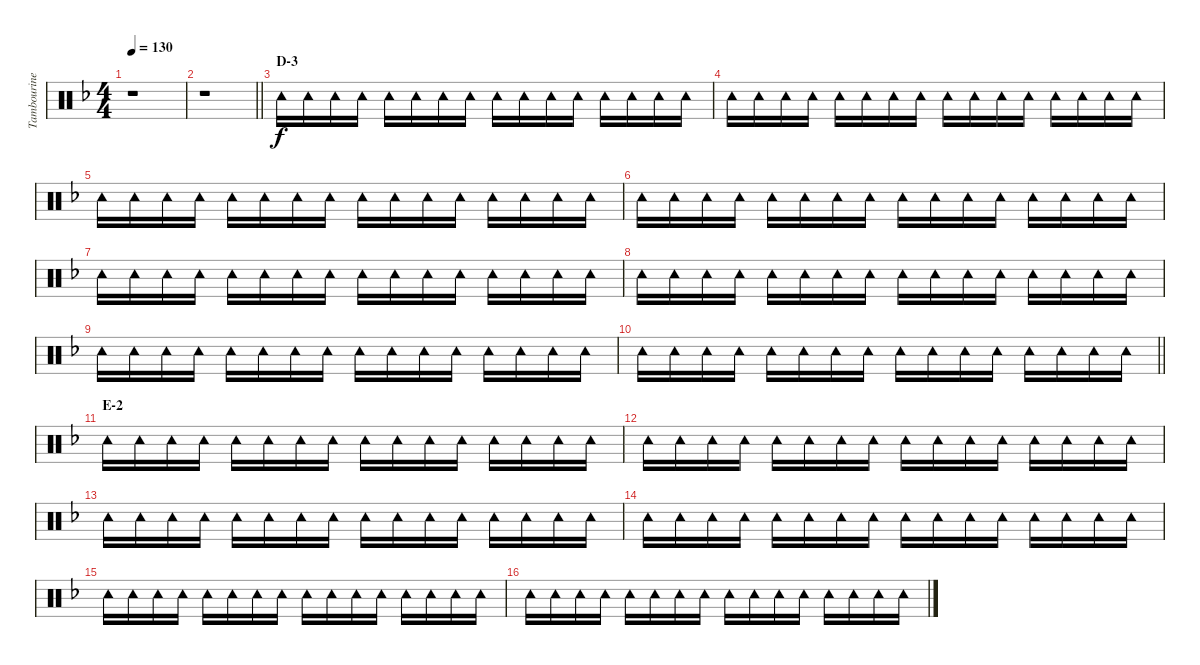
\track ("Tambourine" "Tambourine") {instrument percussion}
\staff {score}
\articulation defaults
\ts (4 4)
\tempo 130
\clef neutral
\ks f
r.1{dy f} |
\barLineRight lightlight
r.1 |
\section ("" "D-3")
"Tambourine (hit)".16 "Tambourine (hit)".16 "Tambourine (hit)".16 "Tambourine (hit)".16 "Tambourine (hit)".16 "Tambourine (hit)".16 "Tambourine (hit)".16 "Tambourine (hit)".16 "Tambourine (hit)".16 "Tambourine (hit)".16 "Tambourine (hit)".16 "Tambourine (hit)".16 "Tambourine (hit)".16 "Tambourine (hit)".16 "Tambourine (hit)".16 "Tambourine (hit)".16 |
"Tambourine (hit)".16 "Tambourine (hit)".16 "Tambourine (hit)".16 "Tambourine (hit)".16 "Tambourine (hit)".16 "Tambourine (hit)".16 "Tambourine (hit)".16 "Tambourine (hit)".16 "Tambourine (hit)".16 "Tambourine (hit)".16 "Tambourine (hit)".16 "Tambourine (hit)".16 "Tambourine (hit)".16 "Tambourine (hit)".16 "Tambourine (hit)".16 "Tambourine (hit)".16 |
"Tambourine (hit)".16 "Tambourine (hit)".16 "Tambourine (hit)".16 "Tambourine (hit)".16 "Tambourine (hit)".16 "Tambourine (hit)".16 "Tambourine (hit)".16 "Tambourine (hit)".16 "Tambourine (hit)".16 "Tambourine (hit)".16 "Tambourine (hit)".16 "Tambourine (hit)".16 "Tambourine (hit)".16 "Tambourine (hit)".16 "Tambourine (hit)".16 "Tambourine (hit)".16 |
"Tambourine (hit)".16 "Tambourine (hit)".16 "Tambourine (hit)".16 "Tambourine (hit)".16 "Tambourine (hit)".16 "Tambourine (hit)".16 "Tambourine (hit)".16 "Tambourine (hit)".16 "Tambourine (hit)".16 "Tambourine (hit)".16 "Tambourine (hit)".16 "Tambourine (hit)".16 "Tambourine (hit)".16 "Tambourine (hit)".16 "Tambourine (hit)".16 "Tambourine (hit)".16 |
"Tambourine (hit)".16 "Tambourine (hit)".16 "Tambourine (hit)".16 "Tambourine (hit)".16 "Tambourine (hit)".16 "Tambourine (hit)".16 "Tambourine (hit)".16 "Tambourine (hit)".16 "Tambourine (hit)".16 "Tambourine (hit)".16 "Tambourine (hit)".16 "Tambourine (hit)".16 "Tambourine (hit)".16 "Tambourine (hit)".16 "Tambourine (hit)".16 "Tambourine (hit)".16 |
"Tambourine (hit)".16 "Tambourine (hit)".16 "Tambourine (hit)".16 "Tambourine (hit)".16 "Tambourine (hit)".16 "Tambourine (hit)".16 "Tambourine (hit)".16 "Tambourine (hit)".16 "Tambourine (hit)".16 "Tambourine (hit)".16 "Tambourine (hit)".16 "Tambourine (hit)".16 "Tambourine (hit)".16 "Tambourine (hit)".16 "Tambourine (hit)".16 "Tambourine (hit)".16 |
"Tambourine (hit)".16 "Tambourine (hit)".16 "Tambourine (hit)".16 "Tambourine (hit)".16 "Tambourine (hit)".16 "Tambourine (hit)".16 "Tambourine (hit)".16 "Tambourine (hit)".16 "Tambourine (hit)".16 "Tambourine (hit)".16 "Tambourine (hit)".16 "Tambourine (hit)".16 "Tambourine (hit)".16 "Tambourine (hit)".16 "Tambourine (hit)".16 "Tambourine (hit)".16 |
\barLineRight lightlight "Tambourine (hit)".16 "Tambourine (hit)".16 "Tambourine (hit)".16 "Tambourine (hit)".16 "Tambourine (hit)".16 "Tambourine (hit)".16 "Tambourine (hit)".16 "Tambourine (hit)".16 "Tambourine (hit)".16 "Tambourine (hit)".16 "Tambourine (hit)".16 "Tambourine (hit)".16 "Tambourine (hit)".16 "Tambourine (hit)".16 "Tambourine (hit)".16 "Tambourine (hit)".16
|
\section ("" "E-2")
"Tambourine (hit)".16 "Tambourine (hit)".16 "Tambourine (hit)".16 "Tambourine (hit)".16 "Tambourine (hit)".16 "Tambourine (hit)".16 "Tambourine (hit)".16 "Tambourine (hit)".16 "Tambourine (hit)".16 "Tambourine (hit)".16 "Tambourine (hit)".16 "Tambourine (hit)".16 "Tambourine (hit)".16 "Tambourine (hit)".16 "Tambourine (hit)".16 "Tambourine (hit)".16 |
"Tambourine (hit)".16 "Tambourine (hit)".16 "Tambourine (hit)".16 "Tambourine (hit)".16 "Tambourine (hit)".16 "Tambourine (hit)".16 "Tambourine (hit)".16 "Tambourine (hit)".16 "Tambourine (hit)".16 "Tambourine (hit)".16 "Tambourine (hit)".16 "Tambourine (hit)".16 "Tambourine (hit)".16 "Tambourine (hit)".16 "Tambourine (hit)".16 "Tambourine (hit)".16 |
"Tambourine (hit)".16 "Tambourine (hit)".16 "Tambourine (hit)".16 "Tambourine (hit)".16 "Tambourine (hit)".16 "Tambourine (hit)".16 "Tambourine (hit)".16 "Tambourine (hit)".16 "Tambourine (hit)".16 "Tambourine (hit)".16 "Tambourine (hit)".16 "Tambourine (hit)".16 "Tambourine (hit)".16 "Tambourine (hit)".16 "Tambourine (hit)".16 "Tambourine (hit)".16 |
"Tambourine (hit)".16 "Tambourine (hit)".16 "Tambourine (hit)".16 "Tambourine (hit)".16 "Tambourine (hit)".16 "Tambourine (hit)".16 "Tambourine (hit)".16 "Tambourine (hit)".16 "Tambourine (hit)".16 "Tambourine (hit)".16 "Tambourine (hit)".16 "Tambourine (hit)".16 "Tambourine (hit)".16 "Tambourine (hit)".16 "Tambourine (hit)".16 "Tambourine (hit)".16 |
"Tambourine (hit)".16 "Tambourine (hit)".16 "Tambourine (hit)".16 "Tambourine (hit)".16 "Tambourine (hit)".16 "Tambourine (hit)".16 "Tambourine (hit)".16 "Tambourine (hit)".16 "Tambourine (hit)".16 "Tambourine (hit)".16 "Tambourine (hit)".16 "Tambourine (hit)".16 "Tambourine (hit)".16 "Tambourine (hit)".16 "Tambourine (hit)".16 "Tambourine (hit)".16 |
"Tambourine (hit)".16 "Tambourine (hit)".16 "Tambourine (hit)".16 "Tambourine (hit)".16 "Tambourine (hit)".16 "Tambourine (hit)".16 "Tambourine (hit)".16 "Tambourine (hit)".16 "Tambourine (hit)".16 "Tambourine (hit)".16 "Tambourine (hit)".16 "Tambourine (hit)".16 "Tambourine (hit)".16 "Tambourine (hit)".16 "Tambourine (hit)".16 "Tambourine (hit)".16
